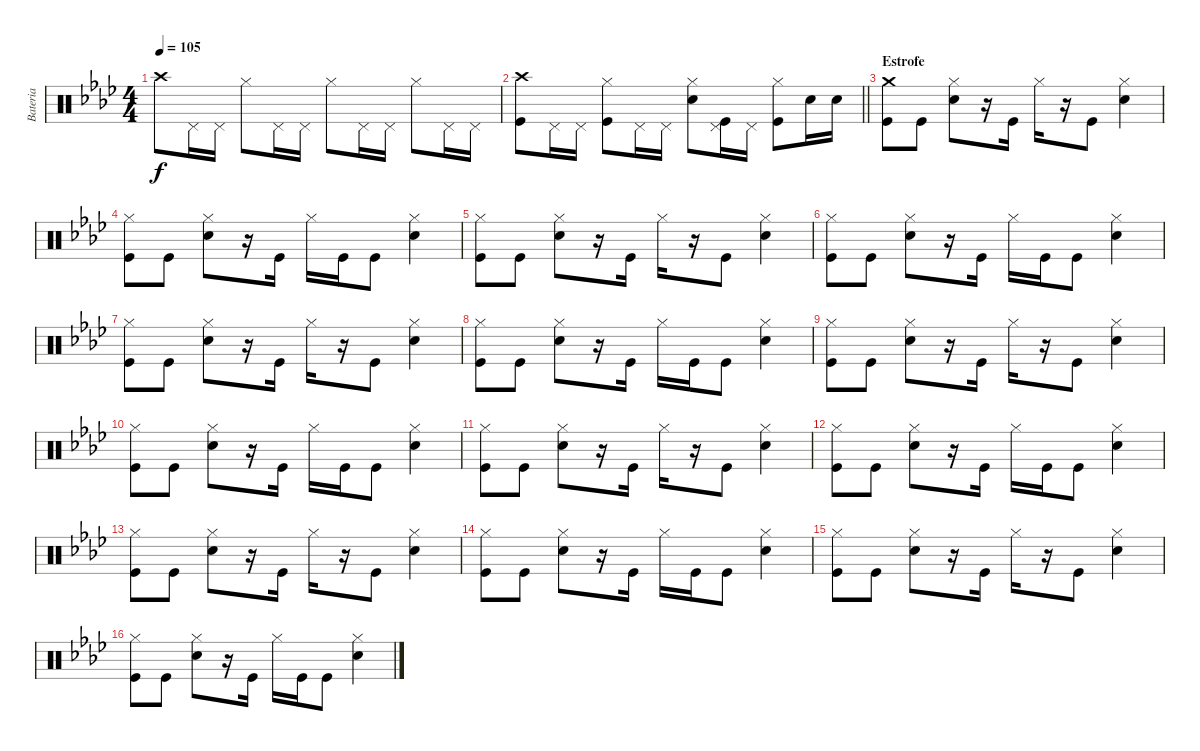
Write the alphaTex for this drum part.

\track ("Bateria" "Bateria") {instrument percussion}
\staff {score}
\articulation defaults
\ts (4 4)
\tempo 105
\clef neutral
\ks fminor "Crash high (hit)".8{dy f} "Pedal Hi-Hat (hit)".16 "Pedal Hi-Hat (hit)".16 "Hi-Hat (closed)".8 "Pedal Hi-Hat (hit)".16 "Pedal Hi-Hat (hit)".16 "Hi-Hat (closed)".8 "Pedal Hi-Hat (hit)".16 "Pedal Hi-Hat (hit)".16 "Hi-Hat (closed)".8 "Pedal Hi-Hat (hit)".16 "Pedal Hi-Hat (hit)".16
|
\barLineRight lightlight
("Crash high (hit)" "Kick (hit)").8 "Pedal Hi-Hat (hit)".16 "Pedal Hi-Hat (hit)".16 ("Hi-Hat (closed)" "Kick (hit)").8 "Pedal Hi-Hat (hit)".16 "Pedal Hi-Hat (hit)".16 ("Hi-Hat (closed)" "Electric Snare (hit)").8 ("Pedal Hi-Hat (hit)" "Kick (hit)").16 "Pedal Hi-Hat (hit)".16 ("Hi-Hat (closed)" "Kick (hit)").8 "Electric Snare (hit)".16 "Electric Snare (hit)".16 |
\section ("" "Estrofe")
("Crash medium (hit)" "Kick (hit)").8 "Kick (hit)".8 ("Hi-Hat (closed)" "Electric Snare (hit)").8 r.16 "Kick (hit)".16 "Hi-Hat (closed)".16 r.16 "Kick (hit)".8 ("Hi-Hat (closed)" "Electric Snare (hit)").4 |
("Hi-Hat (closed)" "Kick (hit)").8 "Kick (hit)".8 ("Hi-Hat (closed)" "Electric Snare (hit)").8 r.16 "Kick (hit)".16 "Hi-Hat (closed)".16 "Kick (hit)".16 "Kick (hit)".8 ("Hi-Hat (closed)" "Electric Snare (hit)").4 |
("Hi-Hat (closed)" "Kick (hit)").8 "Kick (hit)".8 ("Hi-Hat (closed)" "Electric Snare (hit)").8 r.16 "Kick (hit)".16 "Hi-Hat (closed)".16 r.16 "Kick (hit)".8 ("Hi-Hat (closed)" "Electric Snare (hit)").4 |
("Hi-Hat (closed)" "Kick (hit)").8 "Kick (hit)".8 ("Hi-Hat (closed)" "Electric Snare (hit)").8 r.16 "Kick (hit)".16 "Hi-Hat (closed)".16 "Kick (hit)".16 "Kick (hit)".8 ("Hi-Hat (closed)" "Electric Snare (hit)").4 |
("Hi-Hat (closed)" "Kick (hit)").8 "Kick (hit)".8 ("Hi-Hat (closed)" "Electric Snare (hit)").8 r.16 "Kick (hit)".16 "Hi-Hat (closed)".16 r.16 "Kick (hit)".8 ("Hi-Hat (closed)" "Electric Snare (hit)").4 |
("Hi-Hat (closed)" "Kick (hit)").8 "Kick (hit)".8 ("Hi-Hat (closed)" "Electric Snare (hit)").8 r.16 "Kick (hit)".16 "Hi-Hat (closed)".16 "Kick (hit)".16 "Kick (hit)".8 ("Hi-Hat (closed)" "Electric Snare (hit)").4 |
("Hi-Hat (closed)" "Kick (hit)").8 "Kick (hit)".8 ("Hi-Hat (closed)" "Electric Snare (hit)").8 r.16 "Kick (hit)".16 "Hi-Hat (closed)".16 r.16 "Kick (hit)".8 ("Hi-Hat (closed)" "Electric Snare (hit)").4 |
("Hi-Hat (closed)" "Kick (hit)").8 "Kick (hit)".8 ("Hi-Hat (closed)" "Electric Snare (hit)").8 r.16 "Kick (hit)".16 "Hi-Hat (closed)".16 "Kick (hit)".16 "Kick (hit)".8 ("Hi-Hat (closed)" "Electric Snare (hit)").4 |
("Hi-Hat (closed)" "Kick (hit)").8 "Kick (hit)".8 ("Hi-Hat (closed)" "Electric Snare (hit)").8 r.16 "Kick (hit)".16 "Hi-Hat (closed)".16 r.16 "Kick (hit)".8 ("Hi-Hat (closed)" "Electric Snare (hit)").4 |
("Hi-Hat (closed)" "Kick (hit)").8 "Kick (hit)".8 ("Hi-Hat (closed)" "Electric Snare (hit)").8 r.16 "Kick (hit)".16 "Hi-Hat (closed)".16 "Kick (hit)".16 "Kick (hit)".8 ("Hi-Hat (closed)" "Electric Snare (hit)").4 |
("Hi-Hat (closed)" "Kick (hit)").8 "Kick (hit)".8 ("Hi-Hat (closed)" "Electric Snare (hit)").8 r.16 "Kick (hit)".16 "Hi-Hat (closed)".16 r.16 "Kick (hit)".8 ("Hi-Hat (closed)" "Electric Snare (hit)").4 |
("Hi-Hat (closed)" "Kick (hit)").8 "Kick (hit)".8 ("Hi-Hat (closed)" "Electric Snare (hit)").8 r.16 "Kick (hit)".16 "Hi-Hat (closed)".16 "Kick (hit)".16 "Kick (hit)".8 ("Hi-Hat (closed)" "Electric Snare (hit)").4 |
("Hi-Hat (closed)" "Kick (hit)").8 "Kick (hit)".8 ("Hi-Hat (closed)" "Electric Snare (hit)").8 r.16 "Kick (hit)".16 "Hi-Hat (closed)".16 r.16 "Kick (hit)".8 ("Hi-Hat (closed)" "Electric Snare (hit)").4 |
("Hi-Hat (closed)" "Kick (hit)").8 "Kick (hit)".8 ("Hi-Hat (closed)" "Electric Snare (hit)").8 r.16 "Kick (hit)".16 "Hi-Hat (closed)".16 "Kick (hit)".16 "Kick (hit)".8 ("Hi-Hat (closed)" "Electric Snare (hit)").4
